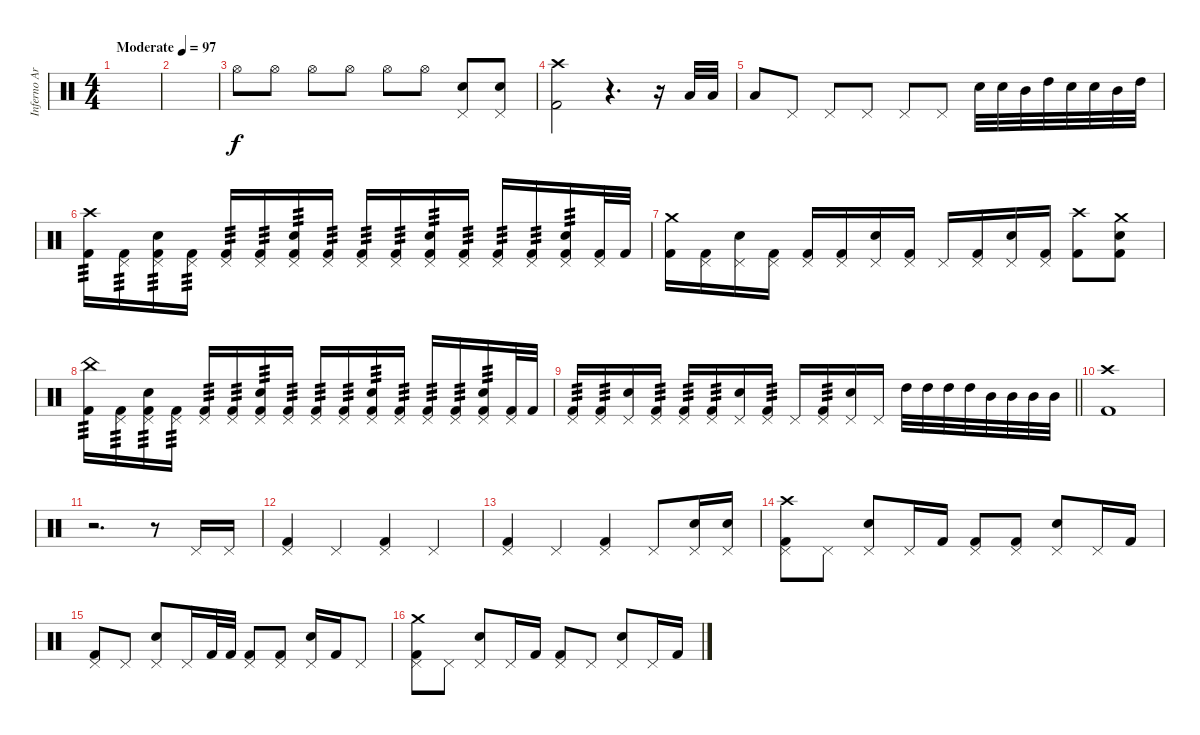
\track ("Inferno Art" "Inferno Ar") {instrument percussion bank 7}
\staff {score}
\articulation defaults
\ts (4 4)
\tempo (97 "Moderate")
\clef neutral
\ks c
|
|
"Hi-Hat (open)".8 "Hi-Hat (open)".8 "Hi-Hat (open)".8 "Hi-Hat (open)".8 "Hi-Hat (open)".8 "Hi-Hat (open)".8 ("Pedal Hi-Hat (hit)" "Snare (hit) 2").8 ("Pedal Hi-Hat (hit)" "Snare (hit) 2").8 |
("Kick (hit) 2" "Crash high (hit)").2 r.4{d} r.16 "Low Tom (hit)".32 "Low Tom (hit)".32 |
"Low Tom (hit)".8 "Pedal Hi-Hat (hit)".8 "Pedal Hi-Hat (hit)".8 "Pedal Hi-Hat (hit)".8 "Pedal Hi-Hat (hit)".8 "Pedal Hi-Hat (hit)".8 "Electric Snare (hit)".32 "Electric Snare (hit)".32 "Mid Tom (hit)".32 "High Tom (hit)".32 "Electric Snare (hit)".32 "Electric Snare (hit)".32 "Mid Tom (hit)".32 "High Tom (hit)".32 |
("Crash high (hit)" "Kick (hit) 2").16{tp 3} ("Pedal Hi-Hat (hit)" "Kick (hit) 2").16{tp 3} ("Pedal Hi-Hat (hit)" "Electric Snare (hit)" "Kick (hit) 2").16{tp 3} ("Pedal Hi-Hat (hit)" "Kick (hit) 2").16{tp 3} ("Pedal Hi-Hat (hit)" "Kick (hit) 2").16{tp 3} ("Pedal Hi-Hat (hit)" "Kick (hit) 2").16{tp 3} ("Pedal Hi-Hat (hit)" "Electric Snare (hit)" "Kick (hit) 2").16{tp 3} ("Pedal Hi-Hat (hit)" "Kick (hit) 2").16{tp 3} ("Pedal Hi-Hat (hit)" "Kick (hit) 2").16{tp 3} ("Pedal Hi-Hat (hit)" "Kick (hit) 2").16{tp 3} ("Pedal Hi-Hat (hit)" "Electric Snare (hit)" "Kick (hit) 2").16{tp 3} ("Pedal Hi-Hat (hit)" "Kick (hit) 2").16{tp 3} ("Pedal Hi-Hat (hit)" "Kick (hit) 2").16{tp 3} ("Pedal Hi-Hat (hit)" "Kick (hit) 2").16{tp 3} ("Pedal Hi-Hat (hit)" "Electric Snare (hit)" "Kick (hit) 2").16{tp 3} ("Pedal Hi-Hat (hit)" "Kick (hit) 2").32 "Kick (hit) 2".32 |
("Crash medium (hit)" "Kick (hit) 2").16 ("Pedal Hi-Hat (hit)" "Kick (hit) 2").16 ("Pedal Hi-Hat (hit)" "Electric Snare (hit)").16 ("Pedal Hi-Hat (hit)" "Kick (hit) 2").16 ("Pedal Hi-Hat (hit)" "Kick (hit) 2").16 ("Pedal Hi-Hat (hit)" "Kick (hit) 2").16 ("Pedal Hi-Hat (hit)" "Electric Snare (hit)").16 ("Pedal Hi-Hat (hit)" "Kick (hit) 2").16 "Pedal Hi-Hat (hit)".16 ("Pedal Hi-Hat (hit)" "Kick (hit) 2").16 ("Pedal Hi-Hat (hit)" "Electric Snare (hit)").16 ("Pedal Hi-Hat (hit)" "Kick (hit) 2").16 ("Crash high (hit)" "Kick (hit) 2").8 ("Crash medium (hit)" "Electric Snare (hit)" "Kick (hit) 2").8 |
("China (hit)" "Kick (hit) 2").16{tp 3} ("Pedal Hi-Hat (hit)" "Kick (hit) 2").16{tp 3} ("Pedal Hi-Hat (hit)" "Electric Snare (hit)" "Kick (hit) 2").16{tp 3} ("Pedal Hi-Hat (hit)" "Kick (hit) 2").16{tp 3} ("Pedal Hi-Hat (hit)" "Kick (hit) 2").16{tp 3} ("Pedal Hi-Hat (hit)" "Kick (hit) 2").16{tp 3} ("Pedal Hi-Hat (hit)" "Electric Snare (hit)" "Kick (hit) 2").16{tp 3} ("Pedal Hi-Hat (hit)" "Kick (hit) 2").16{tp 3} ("Pedal Hi-Hat (hit)" "Kick (hit) 2").16{tp 3} ("Pedal Hi-Hat (hit)" "Kick (hit) 2").16{tp 3} ("Pedal Hi-Hat (hit)" "Electric Snare (hit)" "Kick (hit) 2").16{tp 3} ("Pedal Hi-Hat (hit)" "Kick (hit) 2").16{tp 3} ("Pedal Hi-Hat (hit)" "Kick (hit) 2").16{tp 3} ("Pedal Hi-Hat (hit)" "Kick (hit) 2").16{tp 3} ("Pedal Hi-Hat (hit)" "Electric Snare (hit)" "Kick (hit) 2").16{tp 3} ("Pedal Hi-Hat (hit)" "Kick (hit) 2").32 "Kick (hit) 2".32 |
\barLineRight lightlight
("Pedal Hi-Hat (hit)" "Kick (hit) 2").16{tp 3} ("Pedal Hi-Hat (hit)" "Kick (hit) 2").16{tp 3} ("Pedal Hi-Hat (hit)" "Electric Snare (hit)").16 ("Pedal Hi-Hat (hit)" "Kick (hit) 2").16{tp 3} ("Pedal Hi-Hat (hit)" "Kick (hit) 2").16{tp 3} ("Pedal Hi-Hat (hit)" "Kick (hit) 2").16{tp 3} ("Pedal Hi-Hat (hit)" "Electric Snare (hit)").16 ("Pedal Hi-Hat (hit)" "Kick (hit) 2").16{tp 3} "Pedal Hi-Hat (hit)".16 ("Pedal Hi-Hat (hit)" "Kick (hit) 2").16{tp 3} ("Pedal Hi-Hat (hit)" "Electric Snare (hit)").16 "Pedal Hi-Hat (hit)".16 "High Tom (hit)".32 "High Tom (hit)".32 "High Tom (hit)".32 "High Tom (hit)".32 "Mid Tom (hit)".32 "Mid Tom (hit)".32 "Mid Tom (hit)".32 "Mid Tom (hit)".32 |
("Kick (hit) 2" "Crash high (hit)").1 |
r.2{d} r.8 "Pedal Hi-Hat (hit)".16 "Pedal Hi-Hat (hit)".16 |
("Pedal Hi-Hat (hit)" "Kick (hit) 2").4 "Pedal Hi-Hat (hit)".4 ("Pedal Hi-Hat (hit)" "Kick (hit) 2").4 "Pedal Hi-Hat (hit)".4 |
("Pedal Hi-Hat (hit)" "Kick (hit) 2").4 "Pedal Hi-Hat (hit)".4 ("Pedal Hi-Hat (hit)" "Kick (hit) 2").4 "Pedal Hi-Hat (hit)".8 ("Pedal Hi-Hat (hit)" "Electric Snare (hit)").16 ("Pedal Hi-Hat (hit)" "Electric Snare (hit)").16 |
("Pedal Hi-Hat (hit)" "Kick (hit) 2" "Crash high (hit)").8 "Pedal Hi-Hat (hit)".8 ("Pedal Hi-Hat (hit)" "Electric Snare (hit)").8 "Pedal Hi-Hat (hit)".16 "Kick (hit) 2".16 ("Pedal Hi-Hat (hit)" "Kick (hit) 2").8 ("Pedal Hi-Hat (hit)" "Kick (hit) 2").8 ("Pedal Hi-Hat (hit)" "Electric Snare (hit)").8 "Pedal Hi-Hat (hit)".16 "Kick (hit) 2".16 |
("Pedal Hi-Hat (hit)" "Kick (hit) 2").8 "Pedal Hi-Hat (hit)".8 ("Pedal Hi-Hat (hit)" "Electric Snare (hit)").8 "Pedal Hi-Hat (hit)".16 "Kick (hit) 2".32 "Kick (hit) 2".32 ("Pedal Hi-Hat (hit)" "Kick (hit) 2").8 ("Pedal Hi-Hat (hit)" "Kick (hit) 2").8 ("Pedal Hi-Hat (hit)" "Electric Snare (hit)").16 "Kick (hit) 2".16 "Pedal Hi-Hat (hit)".8 |
("Pedal Hi-Hat (hit)" "Kick (hit) 2" "Crash medium (hit)").8 "Pedal Hi-Hat (hit)".8 ("Pedal Hi-Hat (hit)" "Electric Snare (hit)").8 "Pedal Hi-Hat (hit)".16 "Kick (hit) 2".16 ("Pedal Hi-Hat (hit)" "Kick (hit) 2").8 "Pedal Hi-Hat (hit)".8 ("Pedal Hi-Hat (hit)" "Electric Snare (hit)").8 "Pedal Hi-Hat (hit)".16 "Kick (hit) 2".16
